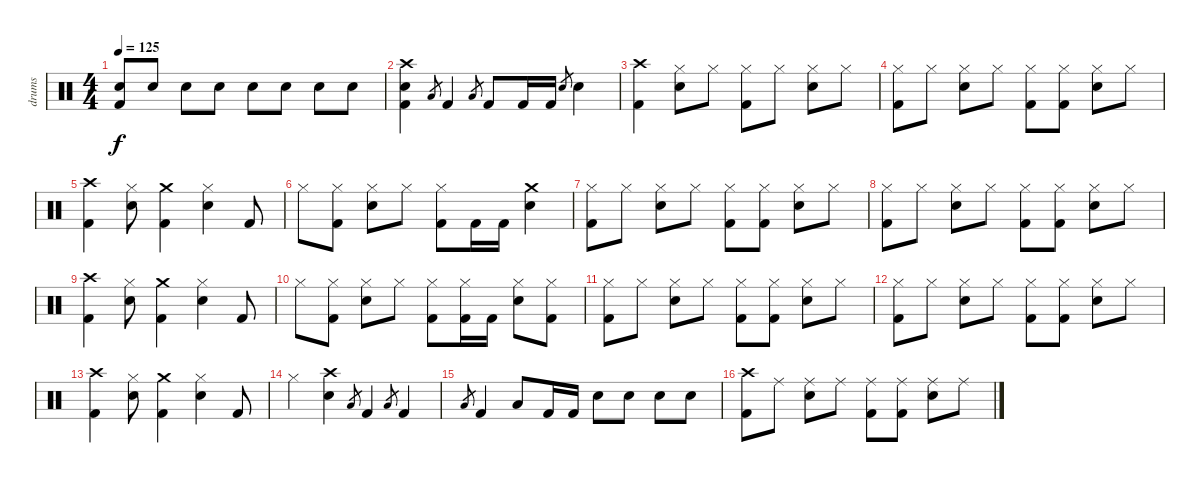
\track ("drums" "drums") {instrument percussion}
\staff {score}
\articulation defaults
\ts (4 4)
\tempo 125
\clef neutral
\ks c
("Electric Snare (hit)" "Kick (hit) 2").8{dy f} "Electric Snare (hit)".8 "Electric Snare (hit)".8 "Electric Snare (hit)".8 "Electric Snare (hit)".8 "Electric Snare (hit)".8 "Electric Snare (hit)".8 "Electric Snare (hit)".8 |
("Crash high (hit)" "Electric Snare (hit)" "Kick (hit) 2").4 "Low Floor Tom (hit)".8{gr} "Kick (hit) 2".4 "Low Floor Tom (hit)".8{gr} "Kick (hit) 2".8 "Kick (hit) 2".16 "Kick (hit) 2".16 "Electric Snare (hit)".8{gr} "Electric Snare (hit)".4 |
("Crash high (hit)" "Kick (hit) 2").4 ("Hi-Hat (closed)" "Electric Snare (hit)").8 "Hi-Hat (closed)".8 ("Hi-Hat (closed)" "Kick (hit) 2").8 "Hi-Hat (closed)".8 ("Hi-Hat (closed)" "Electric Snare (hit)").8 "Hi-Hat (closed)".8 |
("Hi-Hat (closed)" "Kick (hit) 2").8 "Hi-Hat (closed)".8 ("Hi-Hat (closed)" "Electric Snare (hit)").8 "Hi-Hat (closed)".8 ("Hi-Hat (closed)" "Kick (hit) 2").8 ("Hi-Hat (closed)" "Kick (hit) 2").8 ("Hi-Hat (closed)" "Electric Snare (hit)").8 "Hi-Hat (closed)".8 |
("Crash high (hit)" "Kick (hit) 2").4 ("Hi-Hat (closed)" "Electric Snare (hit)").8 ("Crash medium (hit)" "Kick (hit) 2").4 ("Hi-Hat (closed)" "Electric Snare (hit)").4 "Kick (hit) 2".8 |
"Hi-Hat (closed)".8 ("Hi-Hat (closed)" "Kick (hit) 2").8 ("Hi-Hat (closed)" "Electric Snare (hit)").8 "Hi-Hat (closed)".8 ("Hi-Hat (closed)" "Kick (hit) 2").8 "Kick (hit) 2".16 "Kick (hit) 2".16 ("Crash medium (hit)" "Electric Snare (hit)").4 |
("Hi-Hat (closed)" "Kick (hit) 2").8 "Hi-Hat (closed)".8 ("Hi-Hat (closed)" "Electric Snare (hit)").8 "Hi-Hat (closed)".8 ("Hi-Hat (closed)" "Kick (hit) 2").8 ("Hi-Hat (closed)" "Kick (hit) 2").8 ("Hi-Hat (closed)" "Electric Snare (hit)").8 "Hi-Hat (closed)".8 |
("Hi-Hat (closed)" "Kick (hit) 2").8 "Hi-Hat (closed)".8 ("Hi-Hat (closed)" "Electric Snare (hit)").8 "Hi-Hat (closed)".8 ("Hi-Hat (closed)" "Kick (hit) 2").8 ("Hi-Hat (closed)" "Kick (hit) 2").8 ("Hi-Hat (closed)" "Electric Snare (hit)").8 "Hi-Hat (closed)".8 |
("Crash high (hit)" "Kick (hit) 2").4 ("Hi-Hat (closed)" "Electric Snare (hit)").8 ("Crash medium (hit)" "Kick (hit) 2").4 ("Hi-Hat (closed)" "Electric Snare (hit)").4 "Kick (hit) 2".8 |
"Hi-Hat (closed)".8 ("Hi-Hat (closed)" "Kick (hit) 2").8 ("Hi-Hat (closed)" "Electric Snare (hit)").8 "Hi-Hat (closed)".8 ("Hi-Hat (closed)" "Kick (hit) 2").8 ("Hi-Hat (closed)" "Kick (hit) 2").16 "Kick (hit) 2".16 ("Hi-Hat (closed)" "Electric Snare (hit)").8 ("Hi-Hat (closed)" "Kick (hit) 2").8 |
("Hi-Hat (closed)" "Kick (hit) 2").8 "Hi-Hat (closed)".8 ("Hi-Hat (closed)" "Electric Snare (hit)").8 "Hi-Hat (closed)".8 ("Hi-Hat (closed)" "Kick (hit) 2").8 ("Hi-Hat (closed)" "Kick (hit) 2").8 ("Hi-Hat (closed)" "Electric Snare (hit)").8 "Hi-Hat (closed)".8 |
("Hi-Hat (closed)" "Kick (hit) 2").8 "Hi-Hat (closed)".8 ("Hi-Hat (closed)" "Electric Snare (hit)").8 "Hi-Hat (closed)".8 ("Hi-Hat (closed)" "Kick (hit) 2").8 ("Hi-Hat (closed)" "Kick (hit) 2").8 ("Hi-Hat (closed)" "Electric Snare (hit)").8 "Hi-Hat (closed)".8 |
("Crash high (hit)" "Kick (hit) 2").4 ("Hi-Hat (closed)" "Electric Snare (hit)").8 ("Crash medium (hit)" "Kick (hit) 2").4 ("Hi-Hat (closed)" "Electric Snare (hit)").4 "Kick (hit) 2".8 |
"Hi-Hat (closed)".4 ("Crash high (hit)" "Electric Snare (hit)").4 "Low Floor Tom (hit)".8{gr} "Kick (hit) 2".4 "Low Floor Tom (hit)".8{gr} "Kick (hit) 2".4 |
"Low Floor Tom (hit)".8{gr} "Kick (hit) 2".4 "Low Floor Tom (hit)".8 "Kick (hit) 2".16 "Kick (hit) 2".16 "Electric Snare (hit)".8 "Electric Snare (hit)".8 "Electric Snare (hit)".8 "Electric Snare (hit)".8 |
("Crash high (hit)" "Kick (hit) 2").8 "Ride (middle)".8 ("Ride (middle)" "Electric Snare (hit)").8 "Ride (middle)".8 ("Ride (middle)" "Kick (hit) 2").8 ("Ride (middle)" "Kick (hit) 2").8 ("Ride (middle)" "Electric Snare (hit)").8 "Ride (middle)".8
